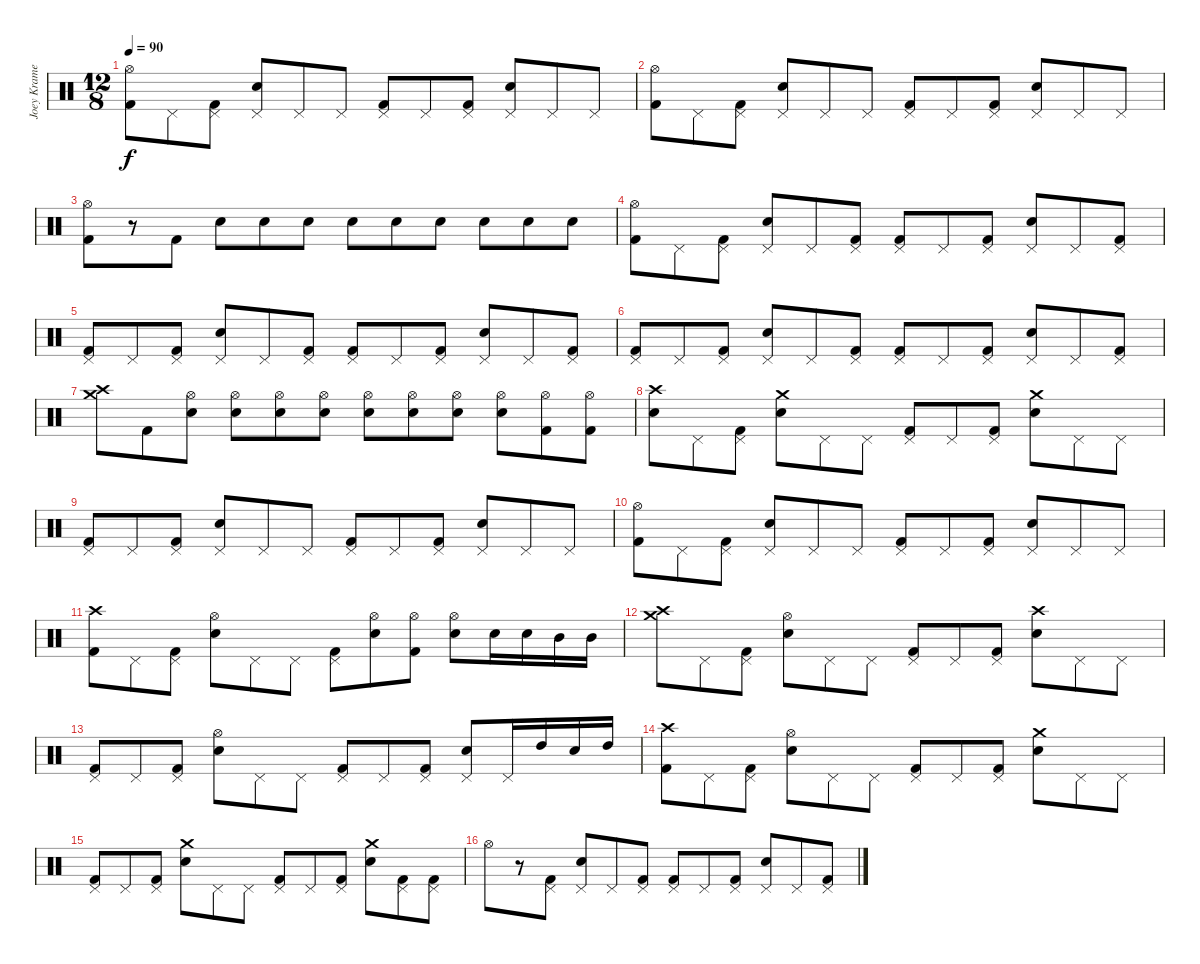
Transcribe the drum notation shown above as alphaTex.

\track ("Joey Kramer" "Joey Krame") {instrument percussion}
\staff {score}
\articulation defaults
\ts (12 8)
\tempo 90
\clef neutral
\ks c
("Hi-Hat (open)" "Kick (hit) 2").8{dy f} "Pedal Hi-Hat (hit)".8 ("Pedal Hi-Hat (hit)" "Kick (hit) 2").8 ("Pedal Hi-Hat (hit)" "Snare (hit) 2").8 "Pedal Hi-Hat (hit)".8 "Pedal Hi-Hat (hit)".8 ("Pedal Hi-Hat (hit)" "Kick (hit) 2").8 "Pedal Hi-Hat (hit)".8 ("Pedal Hi-Hat (hit)" "Kick (hit) 2").8 ("Pedal Hi-Hat (hit)" "Snare (hit) 2").8 "Pedal Hi-Hat (hit)".8 "Pedal Hi-Hat (hit)".8 |
("Hi-Hat (open)" "Kick (hit) 2").8 "Pedal Hi-Hat (hit)".8 ("Pedal Hi-Hat (hit)" "Kick (hit) 2").8 ("Pedal Hi-Hat (hit)" "Snare (hit) 2").8 "Pedal Hi-Hat (hit)".8 "Pedal Hi-Hat (hit)".8 ("Pedal Hi-Hat (hit)" "Kick (hit) 2").8 "Pedal Hi-Hat (hit)".8 ("Pedal Hi-Hat (hit)" "Kick (hit) 2").8 ("Pedal Hi-Hat (hit)" "Snare (hit) 2").8 "Pedal Hi-Hat (hit)".8 "Pedal Hi-Hat (hit)".8 |
("Hi-Hat (open)" "Kick (hit) 2").8 r.8 "Kick (hit) 2".8 "Snare (hit) 2".8 "Snare (hit) 2".8 "Snare (hit) 2".8 "Snare (hit) 2".8 "Snare (hit) 2".8 "Snare (hit) 2".8 "Snare (hit) 2".8 "Snare (hit) 2".8 "Snare (hit) 2".8 |
("Hi-Hat (open)" "Kick (hit) 2").8 "Pedal Hi-Hat (hit)".8 ("Pedal Hi-Hat (hit)" "Kick (hit) 2").8 ("Pedal Hi-Hat (hit)" "Snare (hit) 2").8 "Pedal Hi-Hat (hit)".8 ("Pedal Hi-Hat (hit)" "Kick (hit) 2").8 ("Pedal Hi-Hat (hit)" "Kick (hit) 2").8 "Pedal Hi-Hat (hit)".8 ("Pedal Hi-Hat (hit)" "Kick (hit) 2").8 ("Pedal Hi-Hat (hit)" "Snare (hit) 2").8 "Pedal Hi-Hat (hit)".8 ("Pedal Hi-Hat (hit)" "Kick (hit) 2").8 |
("Pedal Hi-Hat (hit)" "Kick (hit) 2").8 "Pedal Hi-Hat (hit)".8 ("Pedal Hi-Hat (hit)" "Kick (hit) 2").8 ("Pedal Hi-Hat (hit)" "Snare (hit) 2").8 "Pedal Hi-Hat (hit)".8 ("Pedal Hi-Hat (hit)" "Kick (hit) 2").8 ("Pedal Hi-Hat (hit)" "Kick (hit) 2").8 "Pedal Hi-Hat (hit)".8 ("Pedal Hi-Hat (hit)" "Kick (hit) 2").8 ("Pedal Hi-Hat (hit)" "Snare (hit) 2").8 "Pedal Hi-Hat (hit)".8 ("Pedal Hi-Hat (hit)" "Kick (hit) 2").8 |
("Pedal Hi-Hat (hit)" "Kick (hit) 2").8 "Pedal Hi-Hat (hit)".8 ("Pedal Hi-Hat (hit)" "Kick (hit) 2").8 ("Pedal Hi-Hat (hit)" "Snare (hit) 2").8 "Pedal Hi-Hat (hit)".8 ("Pedal Hi-Hat (hit)" "Kick (hit) 2").8 ("Pedal Hi-Hat (hit)" "Kick (hit) 2").8 "Pedal Hi-Hat (hit)".8 ("Pedal Hi-Hat (hit)" "Kick (hit) 2").8 ("Pedal Hi-Hat (hit)" "Snare (hit) 2").8 "Pedal Hi-Hat (hit)".8 ("Pedal Hi-Hat (hit)" "Kick (hit) 2").8 |
("Crash medium (hit)" "Crash high (hit)").8 "Kick (hit) 2".8 ("Hi-Hat (open)" "Snare (hit) 2").8 ("Hi-Hat (open)" "Snare (hit) 2").8 ("Hi-Hat (open)" "Snare (hit) 2").8 ("Hi-Hat (open)" "Snare (hit) 2").8 ("Hi-Hat (open)" "Snare (hit) 2").8 ("Hi-Hat (open)" "Snare (hit) 2").8 ("Hi-Hat (open)" "Snare (hit) 2").8 ("Hi-Hat (open)" "Snare (hit) 2").8 ("Hi-Hat (open)" "Kick (hit) 2").8 ("Hi-Hat (open)" "Kick (hit) 2").8 |
("Snare (hit) 2" "Crash high (hit)").8 "Pedal Hi-Hat (hit)".8 ("Pedal Hi-Hat (hit)" "Kick (hit) 2").8 ("Crash medium (hit)" "Snare (hit) 2").8 "Pedal Hi-Hat (hit)".8 "Pedal Hi-Hat (hit)".8 ("Pedal Hi-Hat (hit)" "Kick (hit) 2").8 "Pedal Hi-Hat (hit)".8 ("Pedal Hi-Hat (hit)" "Kick (hit) 2").8 ("Crash medium (hit)" "Snare (hit) 2").8 "Pedal Hi-Hat (hit)".8 "Pedal Hi-Hat (hit)".8 |
("Pedal Hi-Hat (hit)" "Kick (hit) 2").8 "Pedal Hi-Hat (hit)".8 ("Pedal Hi-Hat (hit)" "Kick (hit) 2").8 ("Pedal Hi-Hat (hit)" "Snare (hit) 2").8 "Pedal Hi-Hat (hit)".8 "Pedal Hi-Hat (hit)".8 ("Pedal Hi-Hat (hit)" "Kick (hit) 2").8 "Pedal Hi-Hat (hit)".8 ("Pedal Hi-Hat (hit)" "Kick (hit) 2").8 ("Pedal Hi-Hat (hit)" "Snare (hit) 2").8 "Pedal Hi-Hat (hit)".8 "Pedal Hi-Hat (hit)".8 |
("Hi-Hat (open)" "Kick (hit) 2").8 "Pedal Hi-Hat (hit)".8 ("Pedal Hi-Hat (hit)" "Kick (hit) 2").8 ("Pedal Hi-Hat (hit)" "Snare (hit) 2").8 "Pedal Hi-Hat (hit)".8 "Pedal Hi-Hat (hit)".8 ("Pedal Hi-Hat (hit)" "Kick (hit) 2").8 "Pedal Hi-Hat (hit)".8 ("Pedal Hi-Hat (hit)" "Kick (hit) 2").8 ("Pedal Hi-Hat (hit)" "Snare (hit) 2").8 "Pedal Hi-Hat (hit)".8 "Pedal Hi-Hat (hit)".8 |
("Crash high (hit)" "Kick (hit) 2").8 "Pedal Hi-Hat (hit)".8 ("Pedal Hi-Hat (hit)" "Kick (hit) 2").8 ("Hi-Hat (open)" "Snare (hit) 2").8 "Pedal Hi-Hat (hit)".8 "Pedal Hi-Hat (hit)".8 ("Pedal Hi-Hat (hit)" "Kick (hit) 2").8 ("Snare (hit) 2" "Hi-Hat (open)").8 ("Kick (hit) 2" "Hi-Hat (open)").8 ("Snare (hit) 2" "Hi-Hat (open)").8 "Snare (hit) 2".16 "Snare (hit) 2".16 "Mid Tom (hit)".16 "Mid Tom (hit)".16 |
("Crash high (hit)" "Crash medium (hit)").8 "Pedal Hi-Hat (hit)".8 ("Pedal Hi-Hat (hit)" "Kick (hit) 2").8 ("Hi-Hat (open)" "Snare (hit) 2").8 "Pedal Hi-Hat (hit)".8 "Pedal Hi-Hat (hit)".8 ("Pedal Hi-Hat (hit)" "Kick (hit) 2").8 "Pedal Hi-Hat (hit)".8 ("Pedal Hi-Hat (hit)" "Kick (hit) 2").8 ("Crash high (hit)" "Snare (hit) 2").8 "Pedal Hi-Hat (hit)".8 "Pedal Hi-Hat (hit)".8 |
("Pedal Hi-Hat (hit)" "Kick (hit) 2").8 "Pedal Hi-Hat (hit)".8 ("Pedal Hi-Hat (hit)" "Kick (hit) 2").8 ("Hi-Hat (open)" "Snare (hit) 2").8 "Pedal Hi-Hat (hit)".8 "Pedal Hi-Hat (hit)".8 ("Pedal Hi-Hat (hit)" "Kick (hit) 2").8 "Pedal Hi-Hat (hit)".8 ("Pedal Hi-Hat (hit)" "Kick (hit) 2").8 ("Pedal Hi-Hat (hit)" "Snare (hit) 2").8 "Pedal Hi-Hat (hit)".16 "High Tom (hit)".16 "Snare (hit) 2".16 "High Tom (hit)".16 |
("Crash high (hit)" "Kick (hit) 2").8 "Pedal Hi-Hat (hit)".8 ("Pedal Hi-Hat (hit)" "Kick (hit) 2").8 ("Hi-Hat (open)" "Snare (hit) 2").8 "Pedal Hi-Hat (hit)".8 "Pedal Hi-Hat (hit)".8 ("Pedal Hi-Hat (hit)" "Kick (hit) 2").8 "Pedal Hi-Hat (hit)".8 ("Pedal Hi-Hat (hit)" "Kick (hit) 2").8 ("Crash medium (hit)" "Snare (hit) 2").8 "Pedal Hi-Hat (hit)".8 "Pedal Hi-Hat (hit)".8 |
("Pedal Hi-Hat (hit)" "Kick (hit) 2").8 "Pedal Hi-Hat (hit)".8 ("Pedal Hi-Hat (hit)" "Kick (hit) 2").8 ("Crash medium (hit)" "Snare (hit) 2").8 "Pedal Hi-Hat (hit)".8 "Pedal Hi-Hat (hit)".8 ("Pedal Hi-Hat (hit)" "Kick (hit) 2").8 "Pedal Hi-Hat (hit)".8 ("Pedal Hi-Hat (hit)" "Kick (hit) 2").8 ("Crash medium (hit)" "Snare (hit) 2").8 ("Pedal Hi-Hat (hit)" "Kick (hit) 2").8 ("Pedal Hi-Hat (hit)" "Kick (hit) 2").8 |
"Hi-Hat (open)".8 r.8 ("Pedal Hi-Hat (hit)" "Kick (hit) 2").8 ("Pedal Hi-Hat (hit)" "Snare (hit) 2").8 "Pedal Hi-Hat (hit)".8 ("Pedal Hi-Hat (hit)" "Kick (hit) 2").8 ("Pedal Hi-Hat (hit)" "Kick (hit) 2").8 "Pedal Hi-Hat (hit)".8 ("Pedal Hi-Hat (hit)" "Kick (hit) 2").8 ("Pedal Hi-Hat (hit)" "Snare (hit) 2").8 "Pedal Hi-Hat (hit)".8 ("Pedal Hi-Hat (hit)" "Kick (hit) 2").8
